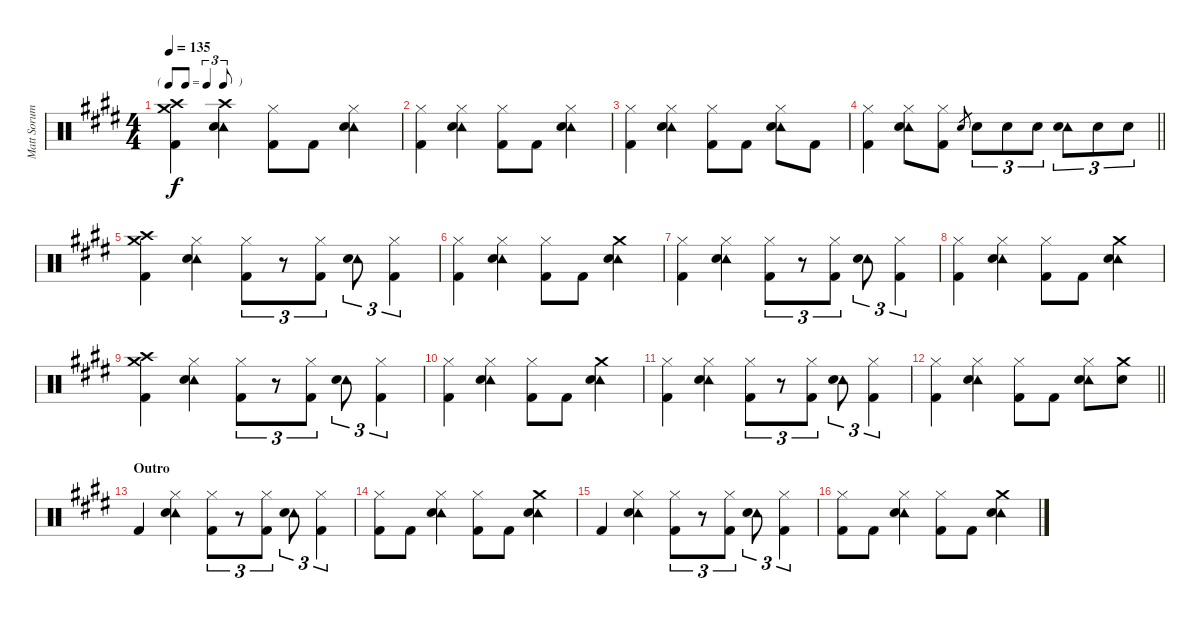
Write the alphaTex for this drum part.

\track ("Matt Sorum - Drums" "Matt Sorum") {instrument percussion}
\staff {score}
\articulation defaults
\ts (4 4)
\tf triplet8th
\tempo 135
\clef neutral
\ks e
("Crash medium (hit)" "Crash high (hit)" "Kick (hit) 2").4{dy f} ("Crash high (hit)" "Tambourine (hit)" "Snare (hit) 2").4 ("Hi-Hat (closed)" "Kick (hit) 2").8 "Kick (hit) 2".8 ("Hi-Hat (closed)" "Tambourine (hit)" "Snare (hit) 2").4 |
("Hi-Hat (closed)" "Kick (hit) 2").4 ("Hi-Hat (closed)" "Tambourine (hit)" "Snare (hit) 2").4 ("Hi-Hat (closed)" "Kick (hit) 2").8 "Kick (hit) 2".8 ("Hi-Hat (closed)" "Tambourine (hit)" "Snare (hit) 2").4 |
("Hi-Hat (closed)" "Kick (hit) 2").4 ("Hi-Hat (closed)" "Tambourine (hit)" "Snare (hit) 2").4 ("Hi-Hat (closed)" "Kick (hit) 2").8 "Kick (hit) 2".8 ("Hi-Hat (closed)" "Tambourine (hit)" "Snare (hit) 2").8 "Kick (hit) 2".8 |
\barLineRight lightlight
("Hi-Hat (closed)" "Kick (hit) 2").4 ("Hi-Hat (closed)" "Tambourine (hit)" "Snare (hit) 2").8 ("Hi-Hat (closed)" "Kick (hit) 2").8 "Snare (hit) 2".8{gr} "Snare (hit) 2".8{tu (3 2)} "Snare (hit) 2".8{tu (3 2)} "Snare (hit) 2".8{tu (3 2)} ("Tambourine (hit)" "Snare (hit) 2").8{tu (3 2)} "Snare (hit) 2".8{tu (3 2)} "Snare (hit) 2".8{tu (3 2)} |
\section ("" "")
("Crash medium (hit)" "Crash high (hit)" "Kick (hit) 2").4 ("Hi-Hat (closed)" "Tambourine (hit)" "Snare (hit) 2").4 ("Hi-Hat (closed)" "Kick (hit) 2").8{tu (3 2)} r.8{tu (3 2)} ("Hi-Hat (closed)" "Kick (hit) 2").8{tu (3 2)} ("Tambourine (hit)" "Snare (hit) 2").8{tu (3 2)} ("Hi-Hat (closed)" "Kick (hit) 2").4{tu (3 2)} |
("Hi-Hat (closed)" "Kick (hit) 2").4 ("Hi-Hat (closed)" "Tambourine (hit)" "Snare (hit) 2").4 ("Hi-Hat (closed)" "Kick (hit) 2").8 "Kick (hit) 2".8 ("Crash medium (hit)" "Tambourine (hit)" "Snare (hit) 2").4 |
("Hi-Hat (closed)" "Kick (hit) 2").4 ("Hi-Hat (closed)" "Tambourine (hit)" "Snare (hit) 2").4 ("Hi-Hat (closed)" "Kick (hit) 2").8{tu (3 2)} r.8{tu (3 2)} ("Hi-Hat (closed)" "Kick (hit) 2").8{tu (3 2)} ("Tambourine (hit)" "Snare (hit) 2").8{tu (3 2)} ("Hi-Hat (closed)" "Kick (hit) 2").4{tu (3 2)} |
("Hi-Hat (closed)" "Kick (hit) 2").4 ("Hi-Hat (closed)" "Tambourine (hit)" "Snare (hit) 2").4 ("Hi-Hat (closed)" "Kick (hit) 2").8 "Kick (hit) 2".8 ("Crash medium (hit)" "Tambourine (hit)" "Snare (hit) 2").4 |
("Crash medium (hit)" "Crash high (hit)" "Kick (hit) 2").4 ("Hi-Hat (closed)" "Tambourine (hit)" "Snare (hit) 2").4 ("Hi-Hat (closed)" "Kick (hit) 2").8{tu (3 2)} r.8{tu (3 2)} ("Hi-Hat (closed)" "Kick (hit) 2").8{tu (3 2)} ("Tambourine (hit)" "Snare (hit) 2").8{tu (3 2)} ("Hi-Hat (closed)" "Kick (hit) 2").4{tu (3 2)} |
("Hi-Hat (closed)" "Kick (hit) 2").4 ("Hi-Hat (closed)" "Tambourine (hit)" "Snare (hit) 2").4 ("Hi-Hat (closed)" "Kick (hit) 2").8 "Kick (hit) 2".8 ("Crash medium (hit)" "Tambourine (hit)" "Snare (hit) 2").4 |
("Hi-Hat (closed)" "Kick (hit) 2").4 ("Hi-Hat (closed)" "Tambourine (hit)" "Snare (hit) 2").4 ("Hi-Hat (closed)" "Kick (hit) 2").8{tu (3 2)} r.8{tu (3 2)} ("Hi-Hat (closed)" "Kick (hit) 2").8{tu (3 2)} ("Tambourine (hit)" "Snare (hit) 2").8{tu (3 2)} ("Hi-Hat (closed)" "Kick (hit) 2").4{tu (3 2)} |
\barLineRight lightlight
("Hi-Hat (closed)" "Kick (hit) 2").4 ("Hi-Hat (closed)" "Tambourine (hit)" "Snare (hit) 2").4 ("Hi-Hat (closed)" "Kick (hit) 2").8 "Kick (hit) 2".8 ("Hi-Hat (closed)" "Tambourine (hit)" "Snare (hit) 2").8 ("Crash medium (hit)" "Snare (hit) 2").8 |
\section ("" "Outro")
"Kick (hit) 2".4 ("Hi-Hat (closed)" "Tambourine (hit)" "Snare (hit) 2").4 ("Hi-Hat (closed)" "Kick (hit) 2").8{tu (3 2)} r.8{tu (3 2)} ("Hi-Hat (closed)" "Kick (hit) 2").8{tu (3 2)} ("Tambourine (hit)" "Snare (hit) 2").8{tu (3 2)} ("Hi-Hat (closed)" "Kick (hit) 2").4{tu (3 2)} |
("Hi-Hat (closed)" "Kick (hit) 2").8 "Kick (hit) 2".8 ("Hi-Hat (closed)" "Tambourine (hit)" "Snare (hit) 2").4 ("Hi-Hat (closed)" "Kick (hit) 2").8 "Kick (hit) 2".8 ("Crash medium (hit)" "Tambourine (hit)" "Snare (hit) 2").4 |
"Kick (hit) 2".4 ("Hi-Hat (closed)" "Tambourine (hit)" "Snare (hit) 2").4 ("Hi-Hat (closed)" "Kick (hit) 2").8{tu (3 2)} r.8{tu (3 2)} ("Hi-Hat (closed)" "Kick (hit) 2").8{tu (3 2)} ("Tambourine (hit)" "Snare (hit) 2").8{tu (3 2)} ("Hi-Hat (closed)" "Kick (hit) 2").4{tu (3 2)} |
("Hi-Hat (closed)" "Kick (hit) 2").8 "Kick (hit) 2".8 ("Hi-Hat (closed)" "Tambourine (hit)" "Snare (hit) 2").4 ("Hi-Hat (closed)" "Kick (hit) 2").8 "Kick (hit) 2".8 ("Crash medium (hit)" "Tambourine (hit)" "Snare (hit) 2").4
